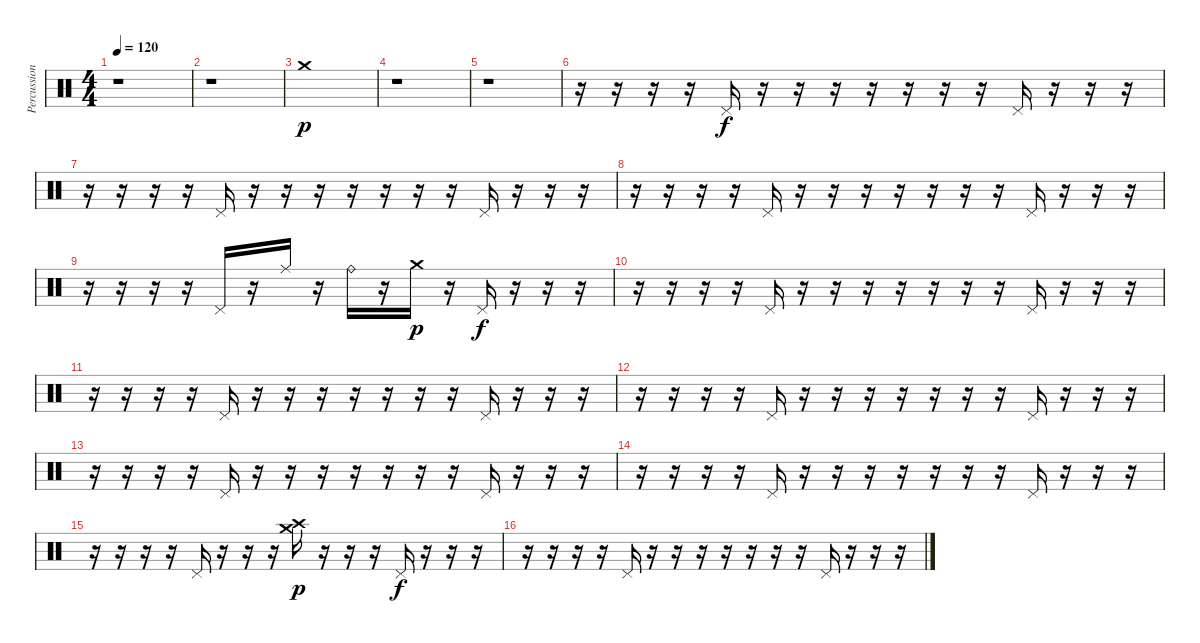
\track ("Percussion" "Percussion") {instrument percussion}
\staff {score}
\articulation defaults
\ts (4 4)
\tempo 120
\clef neutral
\ks c
r.1{dy p} |
r.1 |
"Crash medium (hit)".1 |
r.1 |
r.1 |
r.16 r.16 r.16 r.16 "Pedal Hi-Hat (hit)".16{dy f} r.16 r.16 r.16 r.16 r.16 r.16 r.16 "Pedal Hi-Hat (hit)".16 r.16 r.16 r.16 |
r.16 r.16 r.16 r.16 "Pedal Hi-Hat (hit)".16 r.16 r.16 r.16 r.16 r.16 r.16 r.16 "Pedal Hi-Hat (hit)".16 r.16 r.16 r.16 |
r.16 r.16 r.16 r.16 "Pedal Hi-Hat (hit)".16 r.16 r.16 r.16 r.16 r.16 r.16 r.16 "Pedal Hi-Hat (hit)".16 r.16 r.16 r.16 |
r.16 r.16 r.16 r.16 "Pedal Hi-Hat (hit)".16 r.16 "Ride (middle)".16 r.16 "Ride (bell)".16 r.16 "Crash medium (hit)".16{dy p} r.16 "Pedal Hi-Hat (hit)".16{dy f} r.16 r.16 r.16 |
r.16 r.16 r.16 r.16 "Pedal Hi-Hat (hit)".16 r.16 r.16 r.16 r.16 r.16 r.16 r.16 "Pedal Hi-Hat (hit)".16 r.16 r.16 r.16 |
r.16 r.16 r.16 r.16 "Pedal Hi-Hat (hit)".16 r.16 r.16 r.16 r.16 r.16 r.16 r.16 "Pedal Hi-Hat (hit)".16 r.16 r.16 r.16 |
r.16 r.16 r.16 r.16 "Pedal Hi-Hat (hit)".16 r.16 r.16 r.16 r.16 r.16 r.16 r.16 "Pedal Hi-Hat (hit)".16 r.16 r.16 r.16 |
r.16 r.16 r.16 r.16 "Pedal Hi-Hat (hit)".16 r.16 r.16 r.16 r.16 r.16 r.16 r.16 "Pedal Hi-Hat (hit)".16 r.16 r.16 r.16 |
r.16 r.16 r.16 r.16 "Pedal Hi-Hat (hit)".16 r.16 r.16 r.16 r.16 r.16 r.16 r.16 "Pedal Hi-Hat (hit)".16 r.16 r.16 r.16 |
r.16 r.16 r.16 r.16 "Pedal Hi-Hat (hit)".16 r.16 r.16 r.16 ("Crash high (hit)" "Crash medium (hit)").16{dy p} r.16 r.16 r.16 "Pedal Hi-Hat (hit)".16{dy f} r.16 r.16 r.16 |
r.16 r.16 r.16 r.16 "Pedal Hi-Hat (hit)".16 r.16 r.16 r.16 r.16 r.16 r.16 r.16 "Pedal Hi-Hat (hit)".16 r.16 r.16 r.16
